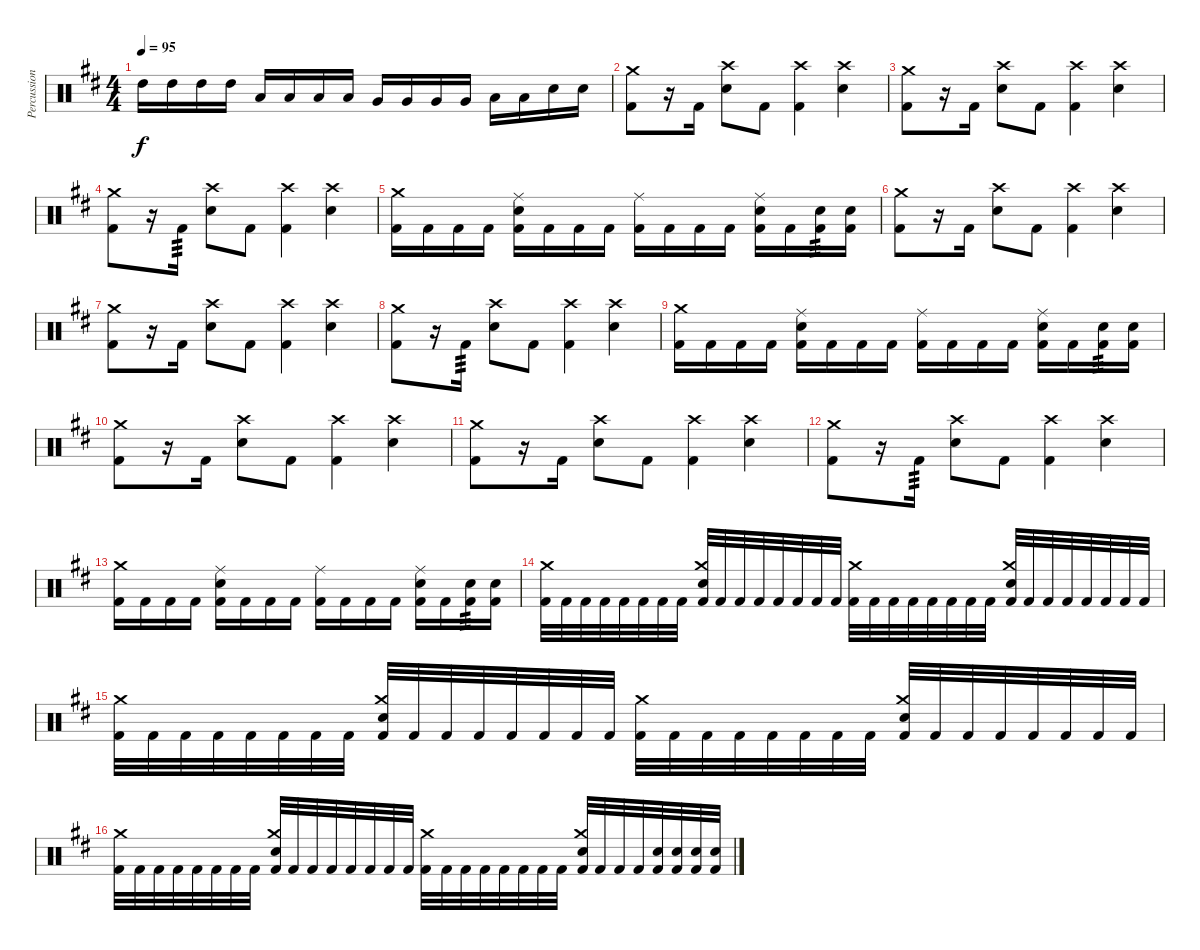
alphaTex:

\track ("Percussion" "Percussion") {instrument percussion}
\staff {score}
\articulation defaults
\ts (4 4)
\tempo 95
\clef neutral
\ks bminor "High Tom (hit)".16{dy f} "High Tom (hit)".16 "High Tom (hit)".16 "High Tom (hit)".16 "Low Tom (hit)".16 "Low Tom (hit)".16 "Low Tom (hit)".16 "Low Tom (hit)".16 "Very Low Tom (hit)".16 "Very Low Tom (hit)".16 "Very Low Tom (hit)".16 "Very Low Tom (hit)".16 "Low Floor Tom (hit)".16 "Low Floor Tom (hit)".16 "Electric Snare (hit)".16 "Electric Snare (hit)".16
|
("Crash medium (hit)" "Kick (hit) 2").8 r.16 "Kick (hit) 2".16 ("Crash high (hit)" "Electric Snare (hit)").8 "Kick (hit) 2".8 ("Crash high (hit)" "Kick (hit) 2").4 ("Crash high (hit)" "Electric Snare (hit)").4 |
("Crash medium (hit)" "Kick (hit) 2").8 r.16 "Kick (hit) 2".16 ("Crash high (hit)" "Electric Snare (hit)").8 "Kick (hit) 2".8 ("Crash high (hit)" "Kick (hit) 2").4 ("Crash high (hit)" "Electric Snare (hit)").4 |
("Crash medium (hit)" "Kick (hit) 2").8 r.16 "Kick (hit) 2".16{tp 3} ("Crash high (hit)" "Electric Snare (hit)").8 "Kick (hit) 2".8 ("Crash high (hit)" "Kick (hit) 2").4 ("Crash high (hit)" "Electric Snare (hit)").4 |
("Crash medium (hit)" "Kick (hit) 2").16 "Kick (hit) 2".16 "Kick (hit) 2".16 "Kick (hit) 2".16 ("Ride (middle)" "Electric Snare (hit)" "Kick (hit) 2").16 "Kick (hit) 2".16 "Kick (hit) 2".16 "Kick (hit) 2".16 ("Ride (middle)" "Kick (hit) 2").16 "Kick (hit) 2".16 "Kick (hit) 2".16 "Kick (hit) 2".16 ("Ride (middle)" "Electric Snare (hit)" "Kick (hit) 2").16 "Kick (hit) 2".16 ("Electric Snare (hit)" "Kick (hit) 2").16{tp 3} ("Electric Snare (hit)" "Kick (hit) 2").16 |
("Crash medium (hit)" "Kick (hit) 2").8 r.16 "Kick (hit) 2".16 ("Crash high (hit)" "Electric Snare (hit)").8 "Kick (hit) 2".8 ("Crash high (hit)" "Kick (hit) 2").4 ("Crash high (hit)" "Electric Snare (hit)").4 |
("Crash medium (hit)" "Kick (hit) 2").8 r.16 "Kick (hit) 2".16 ("Crash high (hit)" "Electric Snare (hit)").8 "Kick (hit) 2".8 ("Crash high (hit)" "Kick (hit) 2").4 ("Crash high (hit)" "Electric Snare (hit)").4 |
("Crash medium (hit)" "Kick (hit) 2").8 r.16 "Kick (hit) 2".16{tp 3} ("Crash high (hit)" "Electric Snare (hit)").8 "Kick (hit) 2".8 ("Crash high (hit)" "Kick (hit) 2").4 ("Crash high (hit)" "Electric Snare (hit)").4 |
("Crash medium (hit)" "Kick (hit) 2").16 "Kick (hit) 2".16 "Kick (hit) 2".16 "Kick (hit) 2".16 ("Ride (middle)" "Electric Snare (hit)" "Kick (hit) 2").16 "Kick (hit) 2".16 "Kick (hit) 2".16 "Kick (hit) 2".16 ("Ride (middle)" "Kick (hit) 2").16 "Kick (hit) 2".16 "Kick (hit) 2".16 "Kick (hit) 2".16 ("Ride (middle)" "Electric Snare (hit)" "Kick (hit) 2").16 "Kick (hit) 2".16 ("Electric Snare (hit)" "Kick (hit) 2").16{tp 3} ("Electric Snare (hit)" "Kick (hit) 2").16 |
("Crash medium (hit)" "Kick (hit) 2").8 r.16 "Kick (hit) 2".16 ("Crash high (hit)" "Electric Snare (hit)").8 "Kick (hit) 2".8 ("Crash high (hit)" "Kick (hit) 2").4 ("Crash high (hit)" "Electric Snare (hit)").4 |
("Crash medium (hit)" "Kick (hit) 2").8 r.16 "Kick (hit) 2".16 ("Crash high (hit)" "Electric Snare (hit)").8 "Kick (hit) 2".8 ("Crash high (hit)" "Kick (hit) 2").4 ("Crash high (hit)" "Electric Snare (hit)").4 |
("Crash medium (hit)" "Kick (hit) 2").8 r.16 "Kick (hit) 2".16{tp 3} ("Crash high (hit)" "Electric Snare (hit)").8 "Kick (hit) 2".8 ("Crash high (hit)" "Kick (hit) 2").4 ("Crash high (hit)" "Electric Snare (hit)").4 |
("Crash medium (hit)" "Kick (hit) 2").16 "Kick (hit) 2".16 "Kick (hit) 2".16 "Kick (hit) 2".16 ("Ride (middle)" "Electric Snare (hit)" "Kick (hit) 2").16 "Kick (hit) 2".16 "Kick (hit) 2".16 "Kick (hit) 2".16 ("Ride (middle)" "Kick (hit) 2").16 "Kick (hit) 2".16 "Kick (hit) 2".16 "Kick (hit) 2".16 ("Ride (middle)" "Electric Snare (hit)" "Kick (hit) 2").16 "Kick (hit) 2".16 ("Electric Snare (hit)" "Kick (hit) 2").16{tp 3} ("Electric Snare (hit)" "Kick (hit) 2").16 |
("Crash medium (hit)" "Kick (hit) 2").32 "Kick (hit) 2".32 "Kick (hit) 2".32 "Kick (hit) 2".32 "Kick (hit) 2".32 "Kick (hit) 2".32 "Kick (hit) 2".32 "Kick (hit) 2".32 ("Crash medium (hit)" "Electric Snare (hit)" "Kick (hit) 2").32 "Kick (hit) 2".32 "Kick (hit) 2".32 "Kick (hit) 2".32 "Kick (hit) 2".32 "Kick (hit) 2".32 "Kick (hit) 2".32 "Kick (hit) 2".32 ("Crash medium (hit)" "Kick (hit) 2").32 "Kick (hit) 2".32 "Kick (hit) 2".32 "Kick (hit) 2".32 "Kick (hit) 2".32 "Kick (hit) 2".32 "Kick (hit) 2".32 "Kick (hit) 2".32 ("Crash medium (hit)" "Electric Snare (hit)" "Kick (hit) 2").32 "Kick (hit) 2".32 "Kick (hit) 2".32 "Kick (hit) 2".32 "Kick (hit) 2".32 "Kick (hit) 2".32 "Kick (hit) 2".32 "Kick (hit) 2".32 |
("Crash medium (hit)" "Kick (hit) 2").32 "Kick (hit) 2".32 "Kick (hit) 2".32 "Kick (hit) 2".32 "Kick (hit) 2".32 "Kick (hit) 2".32 "Kick (hit) 2".32 "Kick (hit) 2".32 ("Crash medium (hit)" "Electric Snare (hit)" "Kick (hit) 2").32 "Kick (hit) 2".32 "Kick (hit) 2".32 "Kick (hit) 2".32 "Kick (hit) 2".32 "Kick (hit) 2".32 "Kick (hit) 2".32 "Kick (hit) 2".32 ("Crash medium (hit)" "Kick (hit) 2").32 "Kick (hit) 2".32 "Kick (hit) 2".32 "Kick (hit) 2".32 "Kick (hit) 2".32 "Kick (hit) 2".32 "Kick (hit) 2".32 "Kick (hit) 2".32 ("Crash medium (hit)" "Electric Snare (hit)" "Kick (hit) 2").32 "Kick (hit) 2".32 "Kick (hit) 2".32 "Kick (hit) 2".32 "Kick (hit) 2".32 "Kick (hit) 2".32 "Kick (hit) 2".32 "Kick (hit) 2".32 |
("Crash medium (hit)" "Kick (hit) 2").32 "Kick (hit) 2".32 "Kick (hit) 2".32 "Kick (hit) 2".32 "Kick (hit) 2".32 "Kick (hit) 2".32 "Kick (hit) 2".32 "Kick (hit) 2".32 ("Crash medium (hit)" "Electric Snare (hit)" "Kick (hit) 2").32 "Kick (hit) 2".32 "Kick (hit) 2".32 "Kick (hit) 2".32 "Kick (hit) 2".32 "Kick (hit) 2".32 "Kick (hit) 2".32 "Kick (hit) 2".32 ("Crash medium (hit)" "Kick (hit) 2").32 "Kick (hit) 2".32 "Kick (hit) 2".32 "Kick (hit) 2".32 "Kick (hit) 2".32 "Kick (hit) 2".32 "Kick (hit) 2".32 "Kick (hit) 2".32 ("Crash medium (hit)" "Electric Snare (hit)" "Kick (hit) 2").32 "Kick (hit) 2".32 "Kick (hit) 2".32 "Kick (hit) 2".32 ("Electric Snare (hit)" "Kick (hit) 2").32 ("Electric Snare (hit)" "Kick (hit) 2").32 ("Electric Snare (hit)" "Kick (hit) 2").32 ("Electric Snare (hit)" "Kick (hit) 2").32
